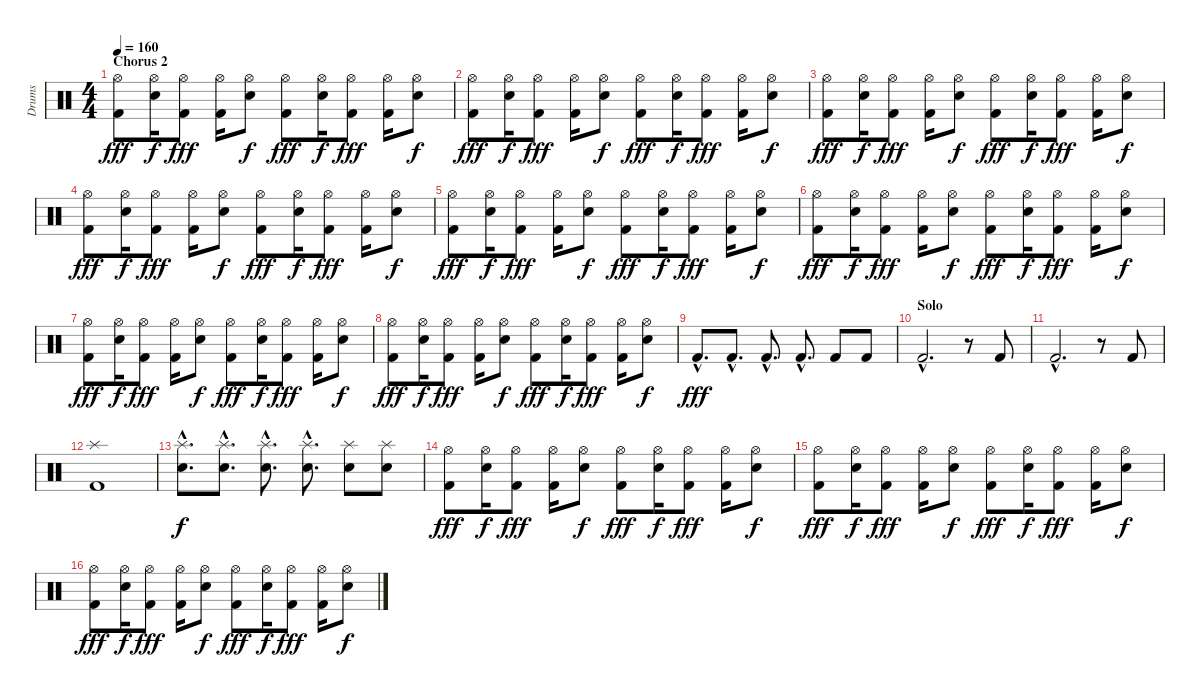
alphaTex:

\track ("Drums" "Drums") {instrument percussion}
\staff {score}
\articulation defaults
\ts (4 4)
\section ("" "Chorus 2")
\tempo 160
\clef neutral
\ks c
("Hi-Hat (open)" "Kick (hit) 2").8{dy fff} ("Hi-Hat (open)" "Electric Snare (hit)").16{dy f} ("Hi-Hat (open)" "Kick (hit) 2").8{dy fff} ("Hi-Hat (open)" "Kick (hit) 2").16 ("Hi-Hat (open)" "Electric Snare (hit)").8{dy f} ("Hi-Hat (open)" "Kick (hit) 2").8{dy fff} ("Hi-Hat (open)" "Electric Snare (hit)").16{dy f} ("Hi-Hat (open)" "Kick (hit) 2").8{dy fff} ("Hi-Hat (open)" "Kick (hit) 2").16 ("Hi-Hat (open)" "Electric Snare (hit)").8{dy f} |
("Hi-Hat (open)" "Kick (hit) 2").8{dy fff} ("Hi-Hat (open)" "Electric Snare (hit)").16{dy f} ("Hi-Hat (open)" "Kick (hit) 2").8{dy fff} ("Hi-Hat (open)" "Kick (hit) 2").16 ("Hi-Hat (open)" "Electric Snare (hit)").8{dy f} ("Hi-Hat (open)" "Kick (hit) 2").8{dy fff} ("Hi-Hat (open)" "Electric Snare (hit)").16{dy f} ("Hi-Hat (open)" "Kick (hit) 2").8{dy fff} ("Hi-Hat (open)" "Kick (hit) 2").16 ("Hi-Hat (open)" "Electric Snare (hit)").8{dy f} |
("Hi-Hat (open)" "Kick (hit) 2").8{dy fff} ("Hi-Hat (open)" "Electric Snare (hit)").16{dy f} ("Hi-Hat (open)" "Kick (hit) 2").8{dy fff} ("Hi-Hat (open)" "Kick (hit) 2").16 ("Hi-Hat (open)" "Electric Snare (hit)").8{dy f} ("Hi-Hat (open)" "Kick (hit) 2").8{dy fff} ("Hi-Hat (open)" "Electric Snare (hit)").16{dy f} ("Hi-Hat (open)" "Kick (hit) 2").8{dy fff} ("Hi-Hat (open)" "Kick (hit) 2").16 ("Hi-Hat (open)" "Electric Snare (hit)").8{dy f} |
("Hi-Hat (open)" "Kick (hit) 2").8{dy fff} ("Hi-Hat (open)" "Electric Snare (hit)").16{dy f} ("Hi-Hat (open)" "Kick (hit) 2").8{dy fff} ("Hi-Hat (open)" "Kick (hit) 2").16 ("Hi-Hat (open)" "Electric Snare (hit)").8{dy f} ("Hi-Hat (open)" "Kick (hit) 2").8{dy fff} ("Hi-Hat (open)" "Electric Snare (hit)").16{dy f} ("Hi-Hat (open)" "Kick (hit) 2").8{dy fff} ("Hi-Hat (open)" "Kick (hit) 2").16 ("Hi-Hat (open)" "Electric Snare (hit)").8{dy f} |
("Hi-Hat (open)" "Kick (hit) 2").8{dy fff} ("Hi-Hat (open)" "Electric Snare (hit)").16{dy f} ("Hi-Hat (open)" "Kick (hit) 2").8{dy fff} ("Hi-Hat (open)" "Kick (hit) 2").16 ("Hi-Hat (open)" "Electric Snare (hit)").8{dy f} ("Hi-Hat (open)" "Kick (hit) 2").8{dy fff} ("Hi-Hat (open)" "Electric Snare (hit)").16{dy f} ("Hi-Hat (open)" "Kick (hit) 2").8{dy fff} ("Hi-Hat (open)" "Kick (hit) 2").16 ("Hi-Hat (open)" "Electric Snare (hit)").8{dy f} |
("Hi-Hat (open)" "Kick (hit) 2").8{dy fff} ("Hi-Hat (open)" "Electric Snare (hit)").16{dy f} ("Hi-Hat (open)" "Kick (hit) 2").8{dy fff} ("Hi-Hat (open)" "Kick (hit) 2").16 ("Hi-Hat (open)" "Electric Snare (hit)").8{dy f} ("Hi-Hat (open)" "Kick (hit) 2").8{dy fff} ("Hi-Hat (open)" "Electric Snare (hit)").16{dy f} ("Hi-Hat (open)" "Kick (hit) 2").8{dy fff} ("Hi-Hat (open)" "Kick (hit) 2").16 ("Hi-Hat (open)" "Electric Snare (hit)").8{dy f} |
("Hi-Hat (open)" "Kick (hit) 2").8{dy fff} ("Hi-Hat (open)" "Electric Snare (hit)").16{dy f} ("Hi-Hat (open)" "Kick (hit) 2").8{dy fff} ("Hi-Hat (open)" "Kick (hit) 2").16 ("Hi-Hat (open)" "Electric Snare (hit)").8{dy f} ("Hi-Hat (open)" "Kick (hit) 2").8{dy fff} ("Hi-Hat (open)" "Electric Snare (hit)").16{dy f} ("Hi-Hat (open)" "Kick (hit) 2").8{dy fff} ("Hi-Hat (open)" "Kick (hit) 2").16 ("Hi-Hat (open)" "Electric Snare (hit)").8{dy f} |
("Hi-Hat (open)" "Kick (hit) 2").8{dy fff} ("Hi-Hat (open)" "Electric Snare (hit)").16{dy f} ("Hi-Hat (open)" "Kick (hit) 2").8{dy fff} ("Hi-Hat (open)" "Kick (hit) 2").16 ("Hi-Hat (open)" "Electric Snare (hit)").8{dy f} ("Hi-Hat (open)" "Kick (hit) 2").8{dy fff} ("Hi-Hat (open)" "Electric Snare (hit)").16{dy f} ("Hi-Hat (open)" "Kick (hit) 2").8{dy fff} ("Hi-Hat (open)" "Kick (hit) 2").16 ("Hi-Hat (open)" "Electric Snare (hit)").8{dy f} |
"Kick (hit) 2"{hac}.8{d dy fff} "Kick (hit) 2"{hac}.8{d} "Kick (hit) 2"{hac}.8{d} "Kick (hit) 2"{hac}.8{d} "Kick (hit) 2".8 "Kick (hit) 2".8 |
\section ("" "Solo")
"Kick (hit) 2"{hac}.2{d} r.8 "Kick (hit) 2".8 |
"Kick (hit) 2"{hac}.2{d} r.8 "Kick (hit) 2".8 |
("Splash (hit)" "Kick (hit) 2").1 |
("Splash (hit)"{hac} "Electric Snare (hit)"{hac}).8{d dy f} ("Splash (hit)"{hac} "Electric Snare (hit)"{hac}).8{d} ("Splash (hit)"{hac} "Electric Snare (hit)"{hac}).8{d} ("Splash (hit)"{hac} "Electric Snare (hit)"{hac}).8{d} ("Splash (hit)" "Electric Snare (hit)").8 ("Splash (hit)" "Electric Snare (hit)").8 |
("Hi-Hat (open)" "Kick (hit) 2").8{dy fff} ("Hi-Hat (open)" "Electric Snare (hit)").16{dy f} ("Hi-Hat (open)" "Kick (hit) 2").8{dy fff} ("Hi-Hat (open)" "Kick (hit) 2").16 ("Hi-Hat (open)" "Electric Snare (hit)").8{dy f} ("Hi-Hat (open)" "Kick (hit) 2").8{dy fff} ("Hi-Hat (open)" "Electric Snare (hit)").16{dy f} ("Hi-Hat (open)" "Kick (hit) 2").8{dy fff} ("Hi-Hat (open)" "Kick (hit) 2").16 ("Hi-Hat (open)" "Electric Snare (hit)").8{dy f} |
("Hi-Hat (open)" "Kick (hit) 2").8{dy fff} ("Hi-Hat (open)" "Electric Snare (hit)").16{dy f} ("Hi-Hat (open)" "Kick (hit) 2").8{dy fff} ("Hi-Hat (open)" "Kick (hit) 2").16 ("Hi-Hat (open)" "Electric Snare (hit)").8{dy f} ("Hi-Hat (open)" "Kick (hit) 2").8{dy fff} ("Hi-Hat (open)" "Electric Snare (hit)").16{dy f} ("Hi-Hat (open)" "Kick (hit) 2").8{dy fff} ("Hi-Hat (open)" "Kick (hit) 2").16 ("Hi-Hat (open)" "Electric Snare (hit)").8{dy f} |
("Hi-Hat (open)" "Kick (hit) 2").8{dy fff} ("Hi-Hat (open)" "Electric Snare (hit)").16{dy f} ("Hi-Hat (open)" "Kick (hit) 2").8{dy fff} ("Hi-Hat (open)" "Kick (hit) 2").16 ("Hi-Hat (open)" "Electric Snare (hit)").8{dy f} ("Hi-Hat (open)" "Kick (hit) 2").8{dy fff} ("Hi-Hat (open)" "Electric Snare (hit)").16{dy f} ("Hi-Hat (open)" "Kick (hit) 2").8{dy fff} ("Hi-Hat (open)" "Kick (hit) 2").16 ("Hi-Hat (open)" "Electric Snare (hit)").8{dy f}
